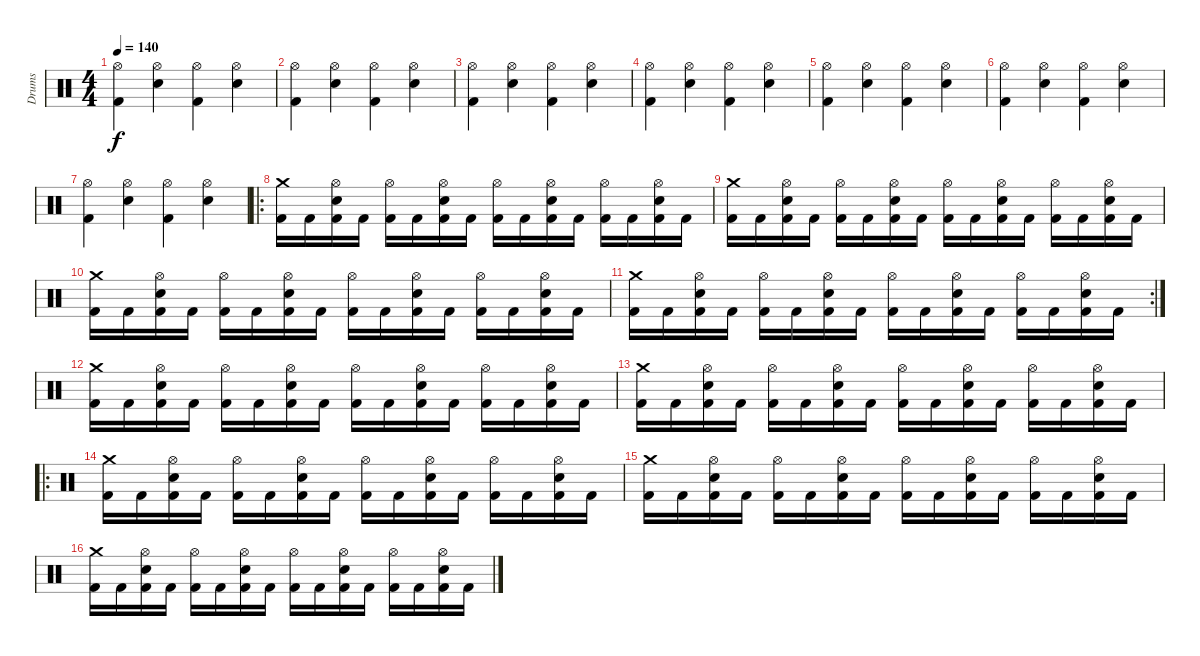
\track ("Drums" "Drums") {instrument percussion}
\staff {score}
\articulation defaults
\ts (4 4)
\tempo 140
\clef neutral
\ks c
("Hi-Hat (open)" "Kick (hit) 2").4{dy f} ("Hi-Hat (open)" "Electric Snare (hit)").4 ("Hi-Hat (open)" "Kick (hit) 2").4 ("Hi-Hat (open)" "Electric Snare (hit)").4 |
("Hi-Hat (open)" "Kick (hit) 2").4 ("Hi-Hat (open)" "Electric Snare (hit)").4 ("Hi-Hat (open)" "Kick (hit) 2").4 ("Hi-Hat (open)" "Electric Snare (hit)").4 |
("Hi-Hat (open)" "Kick (hit) 2").4 ("Hi-Hat (open)" "Electric Snare (hit)").4 ("Hi-Hat (open)" "Kick (hit) 2").4 ("Hi-Hat (open)" "Electric Snare (hit)").4 |
("Hi-Hat (open)" "Kick (hit) 2").4 ("Hi-Hat (open)" "Electric Snare (hit)").4 ("Hi-Hat (open)" "Kick (hit) 2").4 ("Hi-Hat (open)" "Electric Snare (hit)").4 |
("Hi-Hat (open)" "Kick (hit) 2").4 ("Hi-Hat (open)" "Electric Snare (hit)").4 ("Hi-Hat (open)" "Kick (hit) 2").4 ("Hi-Hat (open)" "Electric Snare (hit)").4 |
("Hi-Hat (open)" "Kick (hit) 2").4 ("Hi-Hat (open)" "Electric Snare (hit)").4 ("Hi-Hat (open)" "Kick (hit) 2").4 ("Hi-Hat (open)" "Electric Snare (hit)").4 |
("Hi-Hat (open)" "Kick (hit) 2").4 ("Hi-Hat (open)" "Electric Snare (hit)").4 ("Hi-Hat (open)" "Kick (hit) 2").4 ("Hi-Hat (open)" "Electric Snare (hit)").4 |
\ro
("Crash medium (hit)" "Kick (hit) 2").16 "Kick (hit) 2".16 ("Hi-Hat (open)" "Electric Snare (hit)" "Kick (hit) 2").16 "Kick (hit) 2".16 ("Hi-Hat (open)" "Kick (hit) 2").16 "Kick (hit) 2".16 ("Hi-Hat (open)" "Electric Snare (hit)" "Kick (hit) 2").16 "Kick (hit) 2".16 ("Hi-Hat (open)" "Kick (hit) 2").16 "Kick (hit) 2".16 ("Hi-Hat (open)" "Electric Snare (hit)" "Kick (hit) 2").16 "Kick (hit) 2".16 ("Hi-Hat (open)" "Kick (hit) 2").16 "Kick (hit) 2".16 ("Hi-Hat (open)" "Electric Snare (hit)" "Kick (hit) 2").16 "Kick (hit) 2".16 |
("Crash medium (hit)" "Kick (hit) 2").16 "Kick (hit) 2".16 ("Hi-Hat (open)" "Electric Snare (hit)" "Kick (hit) 2").16 "Kick (hit) 2".16 ("Hi-Hat (open)" "Kick (hit) 2").16 "Kick (hit) 2".16 ("Hi-Hat (open)" "Electric Snare (hit)" "Kick (hit) 2").16 "Kick (hit) 2".16 ("Hi-Hat (open)" "Kick (hit) 2").16 "Kick (hit) 2".16 ("Hi-Hat (open)" "Electric Snare (hit)" "Kick (hit) 2").16 "Kick (hit) 2".16 ("Hi-Hat (open)" "Kick (hit) 2").16 "Kick (hit) 2".16 ("Hi-Hat (open)" "Electric Snare (hit)" "Kick (hit) 2").16 "Kick (hit) 2".16 |
("Crash medium (hit)" "Kick (hit) 2").16 "Kick (hit) 2".16 ("Hi-Hat (open)" "Electric Snare (hit)" "Kick (hit) 2").16 "Kick (hit) 2".16 ("Hi-Hat (open)" "Kick (hit) 2").16 "Kick (hit) 2".16 ("Hi-Hat (open)" "Electric Snare (hit)" "Kick (hit) 2").16 "Kick (hit) 2".16 ("Hi-Hat (open)" "Kick (hit) 2").16 "Kick (hit) 2".16 ("Hi-Hat (open)" "Electric Snare (hit)" "Kick (hit) 2").16 "Kick (hit) 2".16 ("Hi-Hat (open)" "Kick (hit) 2").16 "Kick (hit) 2".16 ("Hi-Hat (open)" "Electric Snare (hit)" "Kick (hit) 2").16 "Kick (hit) 2".16 |
\rc 2
("Crash medium (hit)" "Kick (hit) 2").16 "Kick (hit) 2".16 ("Hi-Hat (open)" "Electric Snare (hit)" "Kick (hit) 2").16 "Kick (hit) 2".16 ("Hi-Hat (open)" "Kick (hit) 2").16 "Kick (hit) 2".16 ("Hi-Hat (open)" "Electric Snare (hit)" "Kick (hit) 2").16 "Kick (hit) 2".16 ("Hi-Hat (open)" "Kick (hit) 2").16 "Kick (hit) 2".16 ("Hi-Hat (open)" "Electric Snare (hit)" "Kick (hit) 2").16 "Kick (hit) 2".16 ("Hi-Hat (open)" "Kick (hit) 2").16 "Kick (hit) 2".16 ("Hi-Hat (open)" "Electric Snare (hit)" "Kick (hit) 2").16 "Kick (hit) 2".16 |
("Crash medium (hit)" "Kick (hit) 2").16 "Kick (hit) 2".16 ("Hi-Hat (open)" "Electric Snare (hit)" "Kick (hit) 2").16 "Kick (hit) 2".16 ("Hi-Hat (open)" "Kick (hit) 2").16 "Kick (hit) 2".16 ("Hi-Hat (open)" "Electric Snare (hit)" "Kick (hit) 2").16 "Kick (hit) 2".16 ("Hi-Hat (open)" "Kick (hit) 2").16 "Kick (hit) 2".16 ("Hi-Hat (open)" "Electric Snare (hit)" "Kick (hit) 2").16 "Kick (hit) 2".16 ("Hi-Hat (open)" "Kick (hit) 2").16 "Kick (hit) 2".16 ("Hi-Hat (open)" "Electric Snare (hit)" "Kick (hit) 2").16 "Kick (hit) 2".16 |
("Crash medium (hit)" "Kick (hit) 2").16 "Kick (hit) 2".16 ("Hi-Hat (open)" "Electric Snare (hit)" "Kick (hit) 2").16 "Kick (hit) 2".16 ("Hi-Hat (open)" "Kick (hit) 2").16 "Kick (hit) 2".16 ("Hi-Hat (open)" "Electric Snare (hit)" "Kick (hit) 2").16 "Kick (hit) 2".16 ("Hi-Hat (open)" "Kick (hit) 2").16 "Kick (hit) 2".16 ("Hi-Hat (open)" "Electric Snare (hit)" "Kick (hit) 2").16 "Kick (hit) 2".16 ("Hi-Hat (open)" "Kick (hit) 2").16 "Kick (hit) 2".16 ("Hi-Hat (open)" "Electric Snare (hit)" "Kick (hit) 2").16 "Kick (hit) 2".16 |
\ro
("Crash medium (hit)" "Kick (hit) 2").16 "Kick (hit) 2".16 ("Hi-Hat (open)" "Electric Snare (hit)" "Kick (hit) 2").16 "Kick (hit) 2".16 ("Hi-Hat (open)" "Kick (hit) 2").16 "Kick (hit) 2".16 ("Hi-Hat (open)" "Electric Snare (hit)" "Kick (hit) 2").16 "Kick (hit) 2".16 ("Hi-Hat (open)" "Kick (hit) 2").16 "Kick (hit) 2".16 ("Hi-Hat (open)" "Electric Snare (hit)" "Kick (hit) 2").16 "Kick (hit) 2".16 ("Hi-Hat (open)" "Kick (hit) 2").16 "Kick (hit) 2".16 ("Hi-Hat (open)" "Electric Snare (hit)" "Kick (hit) 2").16 "Kick (hit) 2".16 |
("Crash medium (hit)" "Kick (hit) 2").16 "Kick (hit) 2".16 ("Hi-Hat (open)" "Electric Snare (hit)" "Kick (hit) 2").16 "Kick (hit) 2".16 ("Hi-Hat (open)" "Kick (hit) 2").16 "Kick (hit) 2".16 ("Hi-Hat (open)" "Electric Snare (hit)" "Kick (hit) 2").16 "Kick (hit) 2".16 ("Hi-Hat (open)" "Kick (hit) 2").16 "Kick (hit) 2".16 ("Hi-Hat (open)" "Electric Snare (hit)" "Kick (hit) 2").16 "Kick (hit) 2".16 ("Hi-Hat (open)" "Kick (hit) 2").16 "Kick (hit) 2".16 ("Hi-Hat (open)" "Electric Snare (hit)" "Kick (hit) 2").16 "Kick (hit) 2".16 |
("Crash medium (hit)" "Kick (hit) 2").16 "Kick (hit) 2".16 ("Hi-Hat (open)" "Electric Snare (hit)" "Kick (hit) 2").16 "Kick (hit) 2".16 ("Hi-Hat (open)" "Kick (hit) 2").16 "Kick (hit) 2".16 ("Hi-Hat (open)" "Electric Snare (hit)" "Kick (hit) 2").16 "Kick (hit) 2".16 ("Hi-Hat (open)" "Kick (hit) 2").16 "Kick (hit) 2".16 ("Hi-Hat (open)" "Electric Snare (hit)" "Kick (hit) 2").16 "Kick (hit) 2".16 ("Hi-Hat (open)" "Kick (hit) 2").16 "Kick (hit) 2".16 ("Hi-Hat (open)" "Electric Snare (hit)" "Kick (hit) 2").16 "Kick (hit) 2".16
